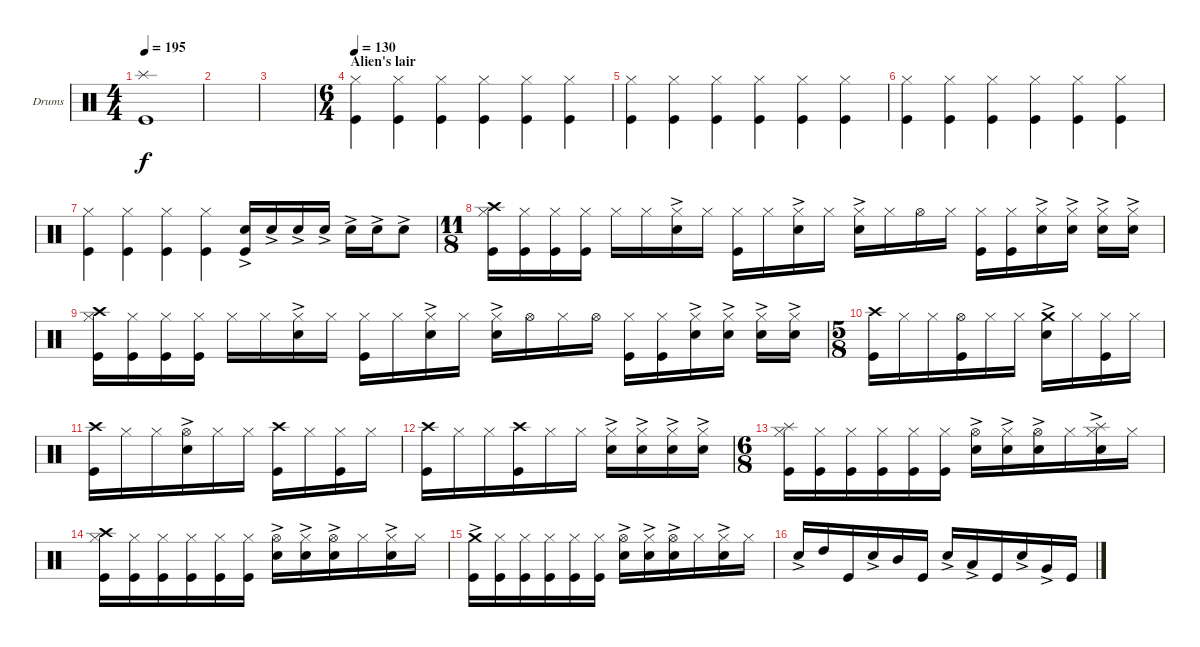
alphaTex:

\defaultSystemsLayout 4
\bracketExtendMode groupsimilarinstruments
\firstSystemTrackNameOrientation horizontal
\otherSystemsTrackNameOrientation horizontal
\track ("Drumkit" "Drums") {instrument percussion}
\staff {score}
\articulation defaults
\ts (4 4)
\tempo 195
\clef neutral
\ks c
("Kick (hit)" "Splash (hit)").1{dy f} |
|
|
\ts (6 4)
\section ("" "Alien's lair")
\tempo 130
("Kick (hit)" "Hi-Hat (closed)").4 ("Kick (hit)" "Hi-Hat (closed)").4 ("Kick (hit)" "Hi-Hat (closed)").4 ("Kick (hit)" "Hi-Hat (closed)").4 ("Kick (hit)" "Hi-Hat (closed)").4 ("Kick (hit)" "Hi-Hat (closed)").4 |
("Kick (hit)" "Hi-Hat (closed)").4 ("Kick (hit)" "Hi-Hat (closed)").4 ("Kick (hit)" "Hi-Hat (closed)").4 ("Kick (hit)" "Hi-Hat (closed)").4 ("Kick (hit)" "Hi-Hat (closed)").4 ("Kick (hit)" "Hi-Hat (closed)").4 |
("Kick (hit)" "Hi-Hat (closed)").4 ("Kick (hit)" "Hi-Hat (closed)").4 ("Kick (hit)" "Hi-Hat (closed)").4 ("Kick (hit)" "Hi-Hat (closed)").4 ("Kick (hit)" "Hi-Hat (closed)").4 ("Kick (hit)" "Hi-Hat (closed)").4 |
("Kick (hit)" "Hi-Hat (closed)").4 ("Kick (hit)" "Hi-Hat (closed)").4 ("Kick (hit)" "Hi-Hat (closed)").4 ("Kick (hit)" "Hi-Hat (closed)").4 ("Snare (hit) 2"{ac} "Kick (hit)").16 "Snare (hit) 2"{ac}.16 "Snare (hit) 2"{ac}.16 "Snare (hit) 2"{ac}.16 "Snare (hit) 2"{ac}.16 "Snare (hit) 2"{ac}.16 "Snare (hit) 2"{ac}.8 |
\ts (11 8)
("Kick (hit)" "Hi-Hat (closed)" "Crash high (hit)").16 ("Kick (hit)" "Hi-Hat (closed)").16 ("Kick (hit)" "Hi-Hat (closed)").16 ("Kick (hit)" "Hi-Hat (closed)").16 "Hi-Hat (closed)".16 "Hi-Hat (closed)".16 ("Snare (hit) 2"{ac} "Hi-Hat (closed)").16 "Hi-Hat (closed)".16 ("Kick (hit)" "Hi-Hat (closed)").16 "Hi-Hat (closed)".16 ("Snare (hit) 2"{ac} "Hi-Hat (closed)").16 "Hi-Hat (closed)".16 ("Snare (hit) 2"{ac} "Hi-Hat (closed)").16 "Hi-Hat (closed)".16 "Hi-Hat (open)".16 "Hi-Hat (closed)".16 ("Kick (hit)" "Hi-Hat (closed)").16 ("Kick (hit)" "Hi-Hat (closed)").16 ("Snare (hit) 2"{ac} "Hi-Hat (closed)").16 ("Snare (hit) 2"{ac} "Hi-Hat (closed)").16 ("Snare (hit) 2"{ac} "Hi-Hat (closed)").16 ("Snare (hit) 2"{ac} "Hi-Hat (closed)").16 |
("Kick (hit)" "Hi-Hat (closed)" "Crash high (hit)").16 ("Kick (hit)" "Hi-Hat (closed)").16 ("Kick (hit)" "Hi-Hat (closed)").16 ("Kick (hit)" "Hi-Hat (closed)").16 "Hi-Hat (closed)".16 "Hi-Hat (closed)".16 ("Snare (hit) 2"{ac} "Hi-Hat (closed)").16 "Hi-Hat (closed)".16 ("Kick (hit)" "Hi-Hat (closed)").16 "Hi-Hat (closed)".16 ("Snare (hit) 2"{ac} "Hi-Hat (closed)").16 "Hi-Hat (closed)".16 ("Snare (hit) 2"{ac} "Hi-Hat (closed)").16 "Hi-Hat (open)".16 "Hi-Hat (closed)".16 "Hi-Hat (open)".16 ("Kick (hit)" "Hi-Hat (closed)").16 ("Kick (hit)" "Hi-Hat (closed)").16 ("Snare (hit) 2"{ac} "Hi-Hat (closed)").16 ("Snare (hit) 2"{ac} "Hi-Hat (closed)").16 ("Snare (hit) 2"{ac} "Hi-Hat (closed)").16 ("Snare (hit) 2"{ac} "Hi-Hat (closed)").16 |
\ts (5 8)
("Kick (hit)" "Crash high (hit)").16 "Hi-Hat (closed)".16 "Hi-Hat (closed)".16 ("Kick (hit)" "Hi-Hat (open)").16 "Hi-Hat (closed)".16 "Hi-Hat (closed)".16 ("Snare (hit) 2"{ac} "Crash medium (hit)"{ac}).16 "Hi-Hat (closed)".16 ("Kick (hit)" "Hi-Hat (closed)").16 "Hi-Hat (closed)".16 |
("Kick (hit)" "Crash high (hit)").16 "Hi-Hat (closed)".16 "Hi-Hat (closed)".16 ("Snare (hit) 2"{ac} "Hi-Hat (open)").16 "Hi-Hat (closed)".16 "Hi-Hat (closed)".16 ("Kick (hit)" "Crash high (hit)").16 "Hi-Hat (closed)".16 ("Kick (hit)" "Hi-Hat (closed)").16 "Hi-Hat (closed)".16 |
("Kick (hit)" "Crash high (hit)").16 "Hi-Hat (closed)".16 "Hi-Hat (closed)".16 ("Kick (hit)" "Crash high (hit)").16 "Hi-Hat (closed)".16 "Hi-Hat (closed)".16 ("Hi-Hat (closed)" "Snare (hit) 2"{ac}).16 ("Hi-Hat (closed)" "Snare (hit) 2"{ac}).16 ("Hi-Hat (closed)" "Snare (hit) 2"{ac}).16 ("Hi-Hat (closed)" "Snare (hit) 2"{ac}).16 |
\ts (6 8)
("Hi-Hat (closed)" "Kick (hit)" "Splash (hit)").16 ("Kick (hit)" "Hi-Hat (closed)").16 ("Kick (hit)" "Hi-Hat (closed)").16 ("Kick (hit)" "Hi-Hat (closed)").16 ("Kick (hit)" "Hi-Hat (closed)").16 ("Kick (hit)" "Hi-Hat (closed)").16 ("Snare (hit) 2"{ac} "Hi-Hat (open)").16 ("Snare (hit) 2"{ac} "Hi-Hat (closed)").16 ("Snare (hit) 2"{ac} "Hi-Hat (open)").16 "Hi-Hat (closed)".16 ("Snare (hit) 2"{ac} "Hi-Hat (closed)" "Splash (hit)").16 "Hi-Hat (closed)".16 |
("Hi-Hat (closed)" "Kick (hit)" "Crash high (hit)").16 ("Kick (hit)" "Hi-Hat (closed)").16 ("Kick (hit)" "Hi-Hat (closed)").16 ("Kick (hit)" "Hi-Hat (closed)").16 ("Kick (hit)" "Hi-Hat (closed)").16 ("Kick (hit)" "Hi-Hat (closed)").16 ("Snare (hit) 2"{ac} "Hi-Hat (open)").16 ("Snare (hit) 2"{ac} "Hi-Hat (closed)").16 ("Snare (hit) 2"{ac} "Hi-Hat (open)").16 "Hi-Hat (closed)".16 ("Snare (hit) 2"{ac} "Hi-Hat (closed)").16 "Hi-Hat (closed)".16 |
("Kick (hit)" "Crash medium (hit)"{ac}).16 ("Kick (hit)" "Hi-Hat (closed)").16 ("Kick (hit)" "Hi-Hat (closed)").16 ("Kick (hit)" "Hi-Hat (closed)").16 ("Kick (hit)" "Hi-Hat (closed)").16 ("Kick (hit)" "Hi-Hat (closed)").16 ("Snare (hit) 2"{ac} "Hi-Hat (open)").16 ("Snare (hit) 2"{ac} "Hi-Hat (closed)").16 ("Snare (hit) 2"{ac} "Hi-Hat (open)").16 "Hi-Hat (closed)".16 ("Snare (hit) 2"{ac} "Hi-Hat (closed)").16 "Hi-Hat (closed)".16 |
"Snare (hit) 2"{ac}.16 "High Tom (hit)".16 "Kick (hit)".16 "Snare (hit) 2"{ac}.16 "Mid Tom (hit)".16 "Kick (hit)".16 "Snare (hit) 2"{ac}.16 "Low Tom (hit)"{ac}.16 "Kick (hit)".16 "Snare (hit) 2"{ac}.16 "Very Low Tom (hit)"{ac}.16 "Kick (hit)".16
